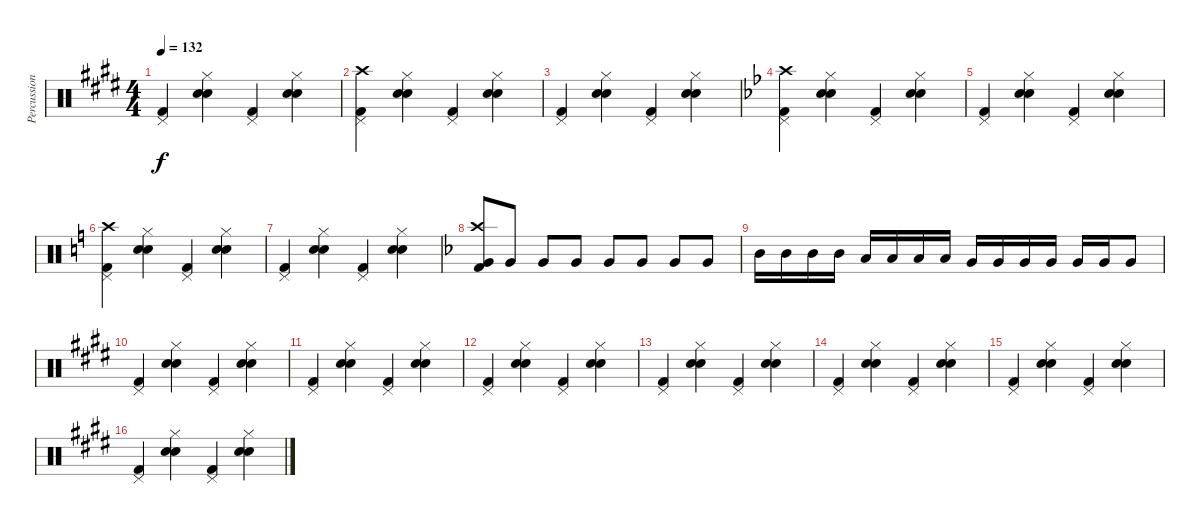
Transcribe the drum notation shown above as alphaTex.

\track ("Percussion" "Percussion") {instrument percussion}
\staff {score}
\articulation defaults
\ts (4 4)
\tempo 132
\clef neutral
\ks e
("Pedal Hi-Hat (hit)" "Kick (hit) 2").4{dy f} ("Hi-Hat (closed)" "Electric Snare (hit)" "Hand Clap (hit)").4 ("Pedal Hi-Hat (hit)" "Kick (hit) 2").4 ("Hi-Hat (closed)" "Electric Snare (hit)" "Hand Clap (hit)").4 |
("Crash high (hit)" "Pedal Hi-Hat (hit)" "Kick (hit) 2").4 ("Hi-Hat (closed)" "Electric Snare (hit)" "Hand Clap (hit)").4 ("Pedal Hi-Hat (hit)" "Kick (hit) 2").4 ("Hi-Hat (closed)" "Electric Snare (hit)" "Hand Clap (hit)").4 |
("Pedal Hi-Hat (hit)" "Kick (hit) 2").4 ("Hi-Hat (closed)" "Electric Snare (hit)" "Hand Clap (hit)").4 ("Pedal Hi-Hat (hit)" "Kick (hit) 2").4 ("Hi-Hat (closed)" "Electric Snare (hit)" "Hand Clap (hit)").4 |
\ks gminor
("Crash high (hit)" "Pedal Hi-Hat (hit)" "Kick (hit) 2").4 ("Hi-Hat (closed)" "Electric Snare (hit)" "Hand Clap (hit)").4 ("Pedal Hi-Hat (hit)" "Kick (hit) 2").4 ("Hi-Hat (closed)" "Electric Snare (hit)" "Hand Clap (hit)").4 |
("Pedal Hi-Hat (hit)" "Kick (hit) 2").4 ("Hi-Hat (closed)" "Electric Snare (hit)" "Hand Clap (hit)").4 ("Pedal Hi-Hat (hit)" "Kick (hit) 2").4 ("Hi-Hat (closed)" "Electric Snare (hit)" "Hand Clap (hit)").4 |
\ks aminor
("Crash high (hit)" "Pedal Hi-Hat (hit)" "Kick (hit) 2").4 ("Hi-Hat (closed)" "Electric Snare (hit)" "Hand Clap (hit)").4 ("Pedal Hi-Hat (hit)" "Kick (hit) 2").4 ("Hi-Hat (closed)" "Electric Snare (hit)" "Hand Clap (hit)").4 |
("Pedal Hi-Hat (hit)" "Kick (hit) 2").4 ("Hi-Hat (closed)" "Electric Snare (hit)" "Hand Clap (hit)").4 ("Pedal Hi-Hat (hit)" "Kick (hit) 2").4 ("Hi-Hat (closed)" "Electric Snare (hit)" "Hand Clap (hit)").4 |
\ks f
("Crash high (hit)" "Kick (hit) 2" "Very Low Tom (hit)").8 "Very Low Tom (hit)".8 "Very Low Tom (hit)".8 "Very Low Tom (hit)".8 "Very Low Tom (hit)".8 "Very Low Tom (hit)".8 "Very Low Tom (hit)".8 "Very Low Tom (hit)".8 |
"Mid Tom (hit)".16 "Mid Tom (hit)".16 "Mid Tom (hit)".16 "Mid Tom (hit)".16 "Low Tom (hit)".16 "Low Tom (hit)".16 "Low Tom (hit)".16 "Low Tom (hit)".16 "Very Low Tom (hit)".16 "Very Low Tom (hit)".16 "Very Low Tom (hit)".16 "Very Low Tom (hit)".16 "Very Low Tom (hit)".16 "Very Low Tom (hit)".16 "Very Low Tom (hit)".8 |
\ks e
("Pedal Hi-Hat (hit)" "Kick (hit) 2").4 ("Hi-Hat (closed)" "Electric Snare (hit)" "Hand Clap (hit)").4 ("Pedal Hi-Hat (hit)" "Kick (hit) 2").4 ("Hi-Hat (closed)" "Electric Snare (hit)" "Hand Clap (hit)").4 |
("Pedal Hi-Hat (hit)" "Kick (hit) 2").4 ("Hi-Hat (closed)" "Electric Snare (hit)" "Hand Clap (hit)").4 ("Pedal Hi-Hat (hit)" "Kick (hit) 2").4 ("Hi-Hat (closed)" "Electric Snare (hit)" "Hand Clap (hit)").4 |
("Pedal Hi-Hat (hit)" "Kick (hit) 2").4 ("Hi-Hat (closed)" "Electric Snare (hit)" "Hand Clap (hit)").4 ("Pedal Hi-Hat (hit)" "Kick (hit) 2").4 ("Hi-Hat (closed)" "Electric Snare (hit)" "Hand Clap (hit)").4 |
("Pedal Hi-Hat (hit)" "Kick (hit) 2").4 ("Hi-Hat (closed)" "Electric Snare (hit)" "Hand Clap (hit)").4 ("Pedal Hi-Hat (hit)" "Kick (hit) 2").4 ("Hi-Hat (closed)" "Electric Snare (hit)" "Hand Clap (hit)").4 |
("Pedal Hi-Hat (hit)" "Kick (hit) 2").4 ("Hi-Hat (closed)" "Electric Snare (hit)" "Hand Clap (hit)").4 ("Pedal Hi-Hat (hit)" "Kick (hit) 2").4 ("Hi-Hat (closed)" "Electric Snare (hit)" "Hand Clap (hit)").4 |
("Pedal Hi-Hat (hit)" "Kick (hit) 2").4 ("Hi-Hat (closed)" "Electric Snare (hit)" "Hand Clap (hit)").4 ("Pedal Hi-Hat (hit)" "Kick (hit) 2").4 ("Hi-Hat (closed)" "Electric Snare (hit)" "Hand Clap (hit)").4 |
("Pedal Hi-Hat (hit)" "Kick (hit) 2").4 ("Hi-Hat (closed)" "Electric Snare (hit)" "Hand Clap (hit)").4 ("Pedal Hi-Hat (hit)" "Kick (hit) 2").4 ("Hi-Hat (closed)" "Electric Snare (hit)" "Hand Clap (hit)").4{volume 2}
